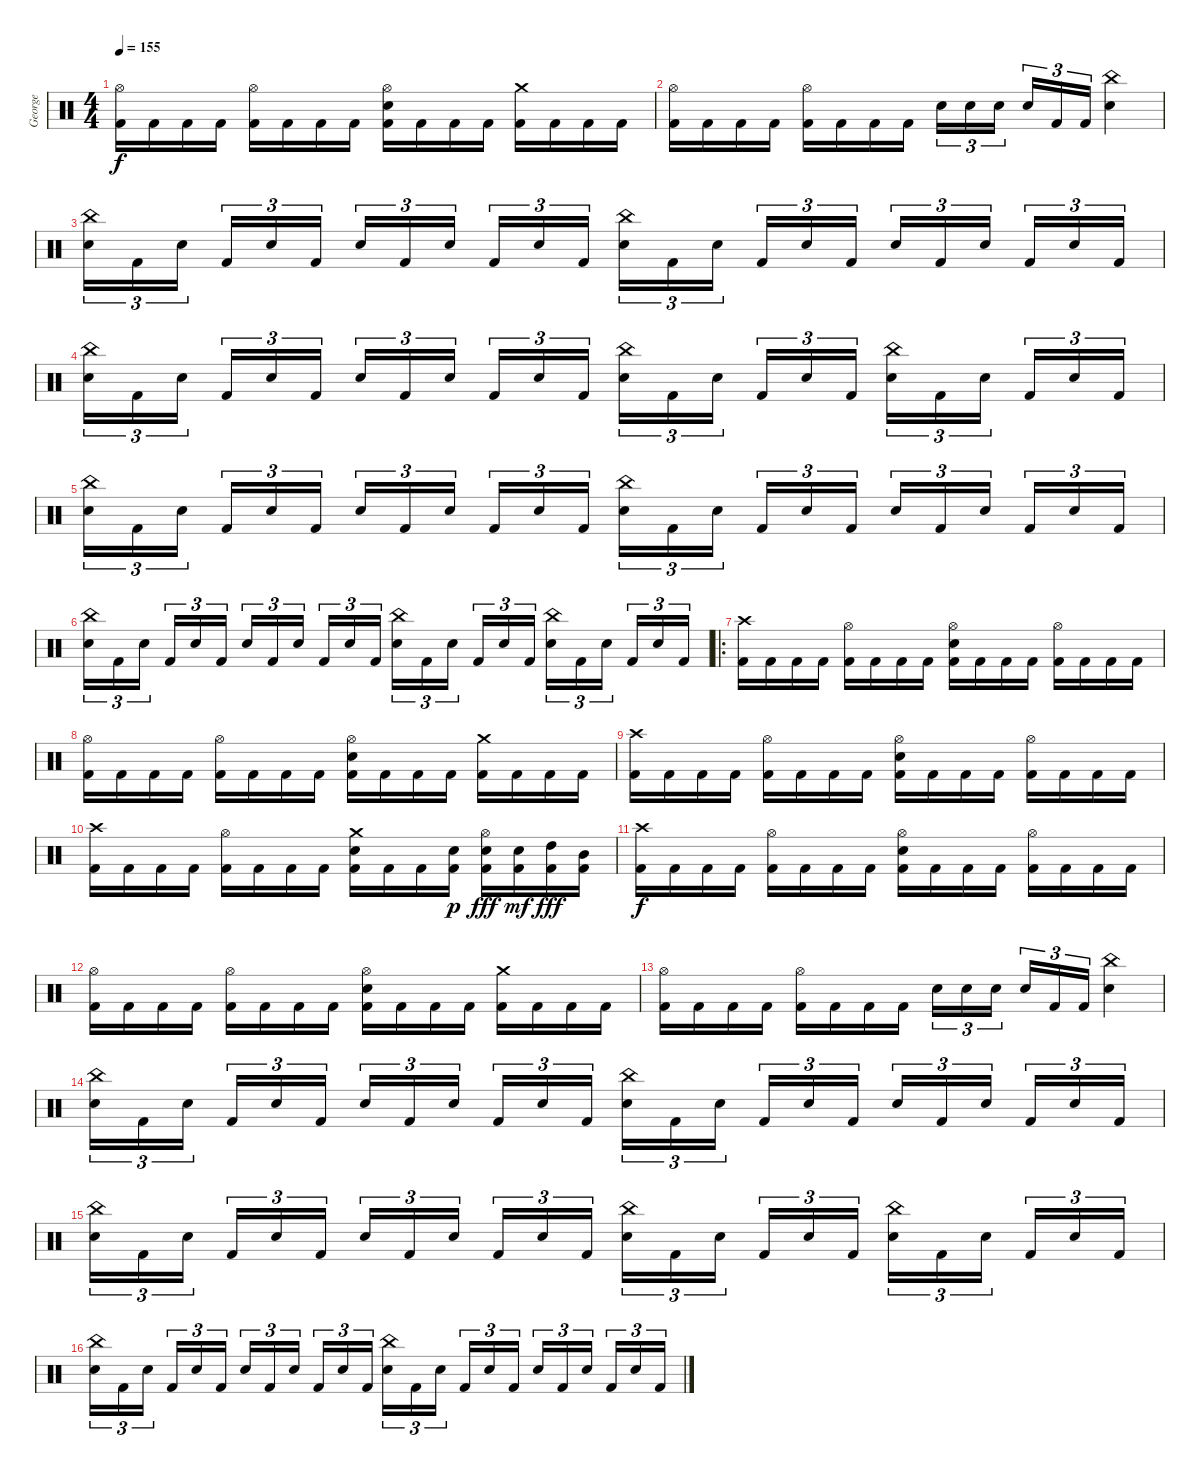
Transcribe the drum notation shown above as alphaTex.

\track ("George" "George") {instrument percussion}
\staff {score}
\articulation defaults
\ts (4 4)
\tempo 155
\clef neutral
\ks c
("Hi-Hat (open)" "Kick (hit) 2").16{dy f} "Kick (hit) 2".16 "Kick (hit) 2".16 "Kick (hit) 2".16 ("Hi-Hat (open)" "Kick (hit) 2").16 "Kick (hit) 2".16 "Kick (hit) 2".16 "Kick (hit) 2".16 ("Hi-Hat (open)" "Snare (hit) 2" "Kick (hit) 2").16 "Kick (hit) 2".16 "Kick (hit) 2".16 "Kick (hit) 2".16 ("Crash medium (hit)" "Kick (hit) 2").16 "Kick (hit) 2".16 "Kick (hit) 2".16 "Kick (hit) 2".16 |
("Hi-Hat (open)" "Kick (hit) 2").16 "Kick (hit) 2".16 "Kick (hit) 2".16 "Kick (hit) 2".16 ("Hi-Hat (open)" "Kick (hit) 2").16 "Kick (hit) 2".16 "Kick (hit) 2".16 "Kick (hit) 2".16 "Snare (hit) 2".16{tu (3 2)} "Snare (hit) 2".16{tu (3 2)} "Snare (hit) 2".16{tu (3 2) beam splitsecondary} "Snare (hit) 2".16{tu (3 2)} "Kick (hit) 2".16{tu (3 2)} "Kick (hit) 2".16{tu (3 2)} ("China (hit)" "Snare (hit) 2").4 |
("China (hit)" "Snare (hit) 2").16{tu (3 2)} "Kick (hit) 2".16{tu (3 2)} "Snare (hit) 2".16{tu (3 2) beam splitsecondary} "Kick (hit) 2".16{tu (3 2)} "Snare (hit) 2".16{tu (3 2)} "Kick (hit) 2".16{tu (3 2)} "Snare (hit) 2".16{tu (3 2)} "Kick (hit) 2".16{tu (3 2)} "Snare (hit) 2".16{tu (3 2) beam splitsecondary} "Kick (hit) 2".16{tu (3 2)} "Snare (hit) 2".16{tu (3 2)} "Kick (hit) 2".16{tu (3 2)} ("China (hit)" "Snare (hit) 2").16{tu (3 2)} "Kick (hit) 2".16{tu (3 2)} "Snare (hit) 2".16{tu (3 2) beam splitsecondary} "Kick (hit) 2".16{tu (3 2)} "Snare (hit) 2".16{tu (3 2)} "Kick (hit) 2".16{tu (3 2)} "Snare (hit) 2".16{tu (3 2)} "Kick (hit) 2".16{tu (3 2)} "Snare (hit) 2".16{tu (3 2) beam splitsecondary} "Kick (hit) 2".16{tu (3 2)} "Snare (hit) 2".16{tu (3 2)} "Kick (hit) 2".16{tu (3 2)} |
("China (hit)" "Snare (hit) 2").16{tu (3 2)} "Kick (hit) 2".16{tu (3 2)} "Snare (hit) 2".16{tu (3 2) beam splitsecondary} "Kick (hit) 2".16{tu (3 2)} "Snare (hit) 2".16{tu (3 2)} "Kick (hit) 2".16{tu (3 2)} "Snare (hit) 2".16{tu (3 2)} "Kick (hit) 2".16{tu (3 2)} "Snare (hit) 2".16{tu (3 2) beam splitsecondary} "Kick (hit) 2".16{tu (3 2)} "Snare (hit) 2".16{tu (3 2)} "Kick (hit) 2".16{tu (3 2)} ("China (hit)" "Snare (hit) 2").16{tu (3 2)} "Kick (hit) 2".16{tu (3 2)} "Snare (hit) 2".16{tu (3 2) beam splitsecondary} "Kick (hit) 2".16{tu (3 2)} "Snare (hit) 2".16{tu (3 2)} "Kick (hit) 2".16{tu (3 2)} ("China (hit)" "Snare (hit) 2").16{tu (3 2)} "Kick (hit) 2".16{tu (3 2)} "Snare (hit) 2".16{tu (3 2) beam splitsecondary} "Kick (hit) 2".16{tu (3 2)} "Snare (hit) 2".16{tu (3 2)} "Kick (hit) 2".16{tu (3 2)} |
("China (hit)" "Snare (hit) 2").16{tu (3 2)} "Kick (hit) 2".16{tu (3 2)} "Snare (hit) 2".16{tu (3 2) beam splitsecondary} "Kick (hit) 2".16{tu (3 2)} "Snare (hit) 2".16{tu (3 2)} "Kick (hit) 2".16{tu (3 2)} "Snare (hit) 2".16{tu (3 2)} "Kick (hit) 2".16{tu (3 2)} "Snare (hit) 2".16{tu (3 2) beam splitsecondary} "Kick (hit) 2".16{tu (3 2)} "Snare (hit) 2".16{tu (3 2)} "Kick (hit) 2".16{tu (3 2)} ("China (hit)" "Snare (hit) 2").16{tu (3 2)} "Kick (hit) 2".16{tu (3 2)} "Snare (hit) 2".16{tu (3 2) beam splitsecondary} "Kick (hit) 2".16{tu (3 2)} "Snare (hit) 2".16{tu (3 2)} "Kick (hit) 2".16{tu (3 2)} "Snare (hit) 2".16{tu (3 2)} "Kick (hit) 2".16{tu (3 2)} "Snare (hit) 2".16{tu (3 2) beam splitsecondary} "Kick (hit) 2".16{tu (3 2)} "Snare (hit) 2".16{tu (3 2)} "Kick (hit) 2".16{tu (3 2)} |
("China (hit)" "Snare (hit) 2").16{tu (3 2)} "Kick (hit) 2".16{tu (3 2)} "Snare (hit) 2".16{tu (3 2) beam splitsecondary} "Kick (hit) 2".16{tu (3 2)} "Snare (hit) 2".16{tu (3 2)} "Kick (hit) 2".16{tu (3 2)} "Snare (hit) 2".16{tu (3 2)} "Kick (hit) 2".16{tu (3 2)} "Snare (hit) 2".16{tu (3 2) beam splitsecondary} "Kick (hit) 2".16{tu (3 2)} "Snare (hit) 2".16{tu (3 2)} "Kick (hit) 2".16{tu (3 2)} ("China (hit)" "Snare (hit) 2").16{tu (3 2)} "Kick (hit) 2".16{tu (3 2)} "Snare (hit) 2".16{tu (3 2) beam splitsecondary} "Kick (hit) 2".16{tu (3 2)} "Snare (hit) 2".16{tu (3 2)} "Kick (hit) 2".16{tu (3 2)} ("China (hit)" "Snare (hit) 2").16{tu (3 2)} "Kick (hit) 2".16{tu (3 2)} "Snare (hit) 2".16{tu (3 2) beam splitsecondary} "Kick (hit) 2".16{tu (3 2)} "Snare (hit) 2".16{tu (3 2)} "Kick (hit) 2".16{tu (3 2)} |
\ro
("Crash high (hit)" "Kick (hit) 2").16 "Kick (hit) 2".16 "Kick (hit) 2".16 "Kick (hit) 2".16 ("Hi-Hat (open)" "Kick (hit) 2").16 "Kick (hit) 2".16 "Kick (hit) 2".16 "Kick (hit) 2".16 ("Hi-Hat (open)" "Snare (hit) 2" "Kick (hit) 2").16 "Kick (hit) 2".16 "Kick (hit) 2".16 "Kick (hit) 2".16 ("Hi-Hat (open)" "Kick (hit) 2").16 "Kick (hit) 2".16 "Kick (hit) 2".16 "Kick (hit) 2".16 |
("Hi-Hat (open)" "Kick (hit) 2").16 "Kick (hit) 2".16 "Kick (hit) 2".16 "Kick (hit) 2".16 ("Hi-Hat (open)" "Kick (hit) 2").16 "Kick (hit) 2".16 "Kick (hit) 2".16 "Kick (hit) 2".16 ("Hi-Hat (open)" "Snare (hit) 2" "Kick (hit) 2").16 "Kick (hit) 2".16 "Kick (hit) 2".16 "Kick (hit) 2".16 ("Crash medium (hit)" "Kick (hit) 2").16 "Kick (hit) 2".16 "Kick (hit) 2".16 "Kick (hit) 2".16 |
("Crash high (hit)" "Kick (hit) 2").16 "Kick (hit) 2".16 "Kick (hit) 2".16 "Kick (hit) 2".16 ("Hi-Hat (open)" "Kick (hit) 2").16 "Kick (hit) 2".16 "Kick (hit) 2".16 "Kick (hit) 2".16 ("Hi-Hat (open)" "Snare (hit) 2" "Kick (hit) 2").16 "Kick (hit) 2".16 "Kick (hit) 2".16 "Kick (hit) 2".16 ("Hi-Hat (open)" "Kick (hit) 2").16 "Kick (hit) 2".16 "Kick (hit) 2".16 "Kick (hit) 2".16 |
("Crash high (hit)" "Kick (hit) 2").16 "Kick (hit) 2".16 "Kick (hit) 2".16 "Kick (hit) 2".16 ("Hi-Hat (open)" "Kick (hit) 2").16 "Kick (hit) 2".16 "Kick (hit) 2".16 "Kick (hit) 2".16 ("Crash medium (hit)" "Snare (hit) 2" "Kick (hit) 2").16 "Kick (hit) 2".16 "Kick (hit) 2".16 ("Snare (hit) 2" "Kick (hit) 2").16{dy p} ("Hi-Hat (open)" "Snare (hit) 2" "Kick (hit) 2").16{dy fff} ("Snare (hit) 2" "Kick (hit) 2").16{dy mf} ("High Tom (hit)" "Kick (hit) 2").16{dy fff} ("Mid Tom (hit)" "Kick (hit) 2").16 |
("Crash high (hit)" "Kick (hit) 2").16{dy f} "Kick (hit) 2".16 "Kick (hit) 2".16 "Kick (hit) 2".16 ("Hi-Hat (open)" "Kick (hit) 2").16 "Kick (hit) 2".16 "Kick (hit) 2".16 "Kick (hit) 2".16 ("Hi-Hat (open)" "Snare (hit) 2" "Kick (hit) 2").16 "Kick (hit) 2".16 "Kick (hit) 2".16 "Kick (hit) 2".16 ("Hi-Hat (open)" "Kick (hit) 2").16 "Kick (hit) 2".16 "Kick (hit) 2".16 "Kick (hit) 2".16 |
("Hi-Hat (open)" "Kick (hit) 2").16 "Kick (hit) 2".16 "Kick (hit) 2".16 "Kick (hit) 2".16 ("Hi-Hat (open)" "Kick (hit) 2").16 "Kick (hit) 2".16 "Kick (hit) 2".16 "Kick (hit) 2".16 ("Hi-Hat (open)" "Snare (hit) 2" "Kick (hit) 2").16 "Kick (hit) 2".16 "Kick (hit) 2".16 "Kick (hit) 2".16 ("Crash medium (hit)" "Kick (hit) 2").16 "Kick (hit) 2".16 "Kick (hit) 2".16 "Kick (hit) 2".16 |
("Hi-Hat (open)" "Kick (hit) 2").16 "Kick (hit) 2".16 "Kick (hit) 2".16 "Kick (hit) 2".16 ("Hi-Hat (open)" "Kick (hit) 2").16 "Kick (hit) 2".16 "Kick (hit) 2".16 "Kick (hit) 2".16 "Snare (hit) 2".16{tu (3 2)} "Snare (hit) 2".16{tu (3 2)} "Snare (hit) 2".16{tu (3 2) beam splitsecondary} "Snare (hit) 2".16{tu (3 2)} "Kick (hit) 2".16{tu (3 2)} "Kick (hit) 2".16{tu (3 2)} ("China (hit)" "Snare (hit) 2").4 |
("China (hit)" "Snare (hit) 2").16{tu (3 2)} "Kick (hit) 2".16{tu (3 2)} "Snare (hit) 2".16{tu (3 2) beam splitsecondary} "Kick (hit) 2".16{tu (3 2)} "Snare (hit) 2".16{tu (3 2)} "Kick (hit) 2".16{tu (3 2)} "Snare (hit) 2".16{tu (3 2)} "Kick (hit) 2".16{tu (3 2)} "Snare (hit) 2".16{tu (3 2) beam splitsecondary} "Kick (hit) 2".16{tu (3 2)} "Snare (hit) 2".16{tu (3 2)} "Kick (hit) 2".16{tu (3 2)} ("China (hit)" "Snare (hit) 2").16{tu (3 2)} "Kick (hit) 2".16{tu (3 2)} "Snare (hit) 2".16{tu (3 2) beam splitsecondary} "Kick (hit) 2".16{tu (3 2)} "Snare (hit) 2".16{tu (3 2)} "Kick (hit) 2".16{tu (3 2)} "Snare (hit) 2".16{tu (3 2)} "Kick (hit) 2".16{tu (3 2)} "Snare (hit) 2".16{tu (3 2) beam splitsecondary} "Kick (hit) 2".16{tu (3 2)} "Snare (hit) 2".16{tu (3 2)} "Kick (hit) 2".16{tu (3 2)} |
("China (hit)" "Snare (hit) 2").16{tu (3 2)} "Kick (hit) 2".16{tu (3 2)} "Snare (hit) 2".16{tu (3 2) beam splitsecondary} "Kick (hit) 2".16{tu (3 2)} "Snare (hit) 2".16{tu (3 2)} "Kick (hit) 2".16{tu (3 2)} "Snare (hit) 2".16{tu (3 2)} "Kick (hit) 2".16{tu (3 2)} "Snare (hit) 2".16{tu (3 2) beam splitsecondary} "Kick (hit) 2".16{tu (3 2)} "Snare (hit) 2".16{tu (3 2)} "Kick (hit) 2".16{tu (3 2)} ("China (hit)" "Snare (hit) 2").16{tu (3 2)} "Kick (hit) 2".16{tu (3 2)} "Snare (hit) 2".16{tu (3 2) beam splitsecondary} "Kick (hit) 2".16{tu (3 2)} "Snare (hit) 2".16{tu (3 2)} "Kick (hit) 2".16{tu (3 2)} ("China (hit)" "Snare (hit) 2").16{tu (3 2)} "Kick (hit) 2".16{tu (3 2)} "Snare (hit) 2".16{tu (3 2) beam splitsecondary} "Kick (hit) 2".16{tu (3 2)} "Snare (hit) 2".16{tu (3 2)} "Kick (hit) 2".16{tu (3 2)} |
("China (hit)" "Snare (hit) 2").16{tu (3 2)} "Kick (hit) 2".16{tu (3 2)} "Snare (hit) 2".16{tu (3 2) beam splitsecondary} "Kick (hit) 2".16{tu (3 2)} "Snare (hit) 2".16{tu (3 2)} "Kick (hit) 2".16{tu (3 2)} "Snare (hit) 2".16{tu (3 2)} "Kick (hit) 2".16{tu (3 2)} "Snare (hit) 2".16{tu (3 2) beam splitsecondary} "Kick (hit) 2".16{tu (3 2)} "Snare (hit) 2".16{tu (3 2)} "Kick (hit) 2".16{tu (3 2)} ("China (hit)" "Snare (hit) 2").16{tu (3 2)} "Kick (hit) 2".16{tu (3 2)} "Snare (hit) 2".16{tu (3 2) beam splitsecondary} "Kick (hit) 2".16{tu (3 2)} "Snare (hit) 2".16{tu (3 2)} "Kick (hit) 2".16{tu (3 2)} "Snare (hit) 2".16{tu (3 2)} "Kick (hit) 2".16{tu (3 2)} "Snare (hit) 2".16{tu (3 2) beam splitsecondary} "Kick (hit) 2".16{tu (3 2)} "Snare (hit) 2".16{tu (3 2)} "Kick (hit) 2".16{tu (3 2)}
